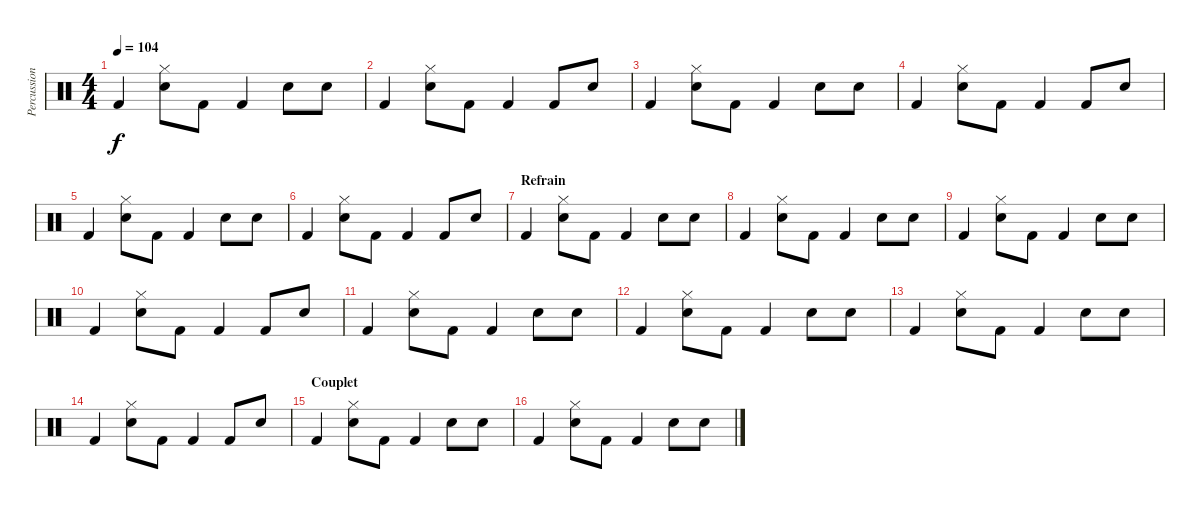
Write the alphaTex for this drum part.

\track ("Percussions" "Percussion") {instrument percussion}
\staff {score}
\articulation defaults
\ts (4 4)
\tempo 104
\clef neutral
\ks c "Kick (hit) 2".4{dy f}
("Hi-Hat (closed)" "Snare (hit) 2").8 "Kick (hit) 2".8 "Kick (hit) 2".4 "Snare (hit) 2".8 "Electric Snare (hit)".8 |
"Kick (hit) 2".4 ("Hi-Hat (closed)" "Snare (hit) 2").8 "Kick (hit) 2".8 "Kick (hit) 2".4 "Kick (hit) 2".8 "Electric Snare (hit)".8 |
"Kick (hit) 2".4 ("Hi-Hat (closed)" "Snare (hit) 2").8 "Kick (hit) 2".8 "Kick (hit) 2".4 "Snare (hit) 2".8 "Electric Snare (hit)".8 |
"Kick (hit) 2".4 ("Hi-Hat (closed)" "Snare (hit) 2").8 "Kick (hit) 2".8 "Kick (hit) 2".4 "Kick (hit) 2".8 "Electric Snare (hit)".8 |
"Kick (hit) 2".4 ("Hi-Hat (closed)" "Snare (hit) 2").8 "Kick (hit) 2".8 "Kick (hit) 2".4 "Snare (hit) 2".8 "Electric Snare (hit)".8 |
"Kick (hit) 2".4 ("Hi-Hat (closed)" "Snare (hit) 2").8 "Kick (hit) 2".8 "Kick (hit) 2".4 "Kick (hit) 2".8 "Electric Snare (hit)".8 |
\section ("" "Refrain")
"Kick (hit) 2".4 ("Hi-Hat (closed)" "Snare (hit) 2").8 "Kick (hit) 2".8 "Kick (hit) 2".4 "Snare (hit) 2".8 "Electric Snare (hit)".8 |
"Kick (hit) 2".4 ("Hi-Hat (closed)" "Snare (hit) 2").8 "Kick (hit) 2".8 "Kick (hit) 2".4 "Snare (hit) 2".8 "Electric Snare (hit)".8 |
"Kick (hit) 2".4 ("Hi-Hat (closed)" "Snare (hit) 2").8 "Kick (hit) 2".8 "Kick (hit) 2".4 "Snare (hit) 2".8 "Electric Snare (hit)".8 |
"Kick (hit) 2".4 ("Hi-Hat (closed)" "Snare (hit) 2").8 "Kick (hit) 2".8 "Kick (hit) 2".4 "Kick (hit) 2".8 "Electric Snare (hit)".8 |
"Kick (hit) 2".4 ("Hi-Hat (closed)" "Snare (hit) 2").8 "Kick (hit) 2".8 "Kick (hit) 2".4 "Snare (hit) 2".8 "Electric Snare (hit)".8 |
"Kick (hit) 2".4 ("Hi-Hat (closed)" "Snare (hit) 2").8 "Kick (hit) 2".8 "Kick (hit) 2".4 "Snare (hit) 2".8 "Electric Snare (hit)".8 |
"Kick (hit) 2".4 ("Hi-Hat (closed)" "Snare (hit) 2").8 "Kick (hit) 2".8 "Kick (hit) 2".4 "Snare (hit) 2".8 "Electric Snare (hit)".8 |
"Kick (hit) 2".4 ("Hi-Hat (closed)" "Snare (hit) 2").8 "Kick (hit) 2".8 "Kick (hit) 2".4 "Kick (hit) 2".8 "Electric Snare (hit)".8 |
\section ("" "Couplet")
"Kick (hit) 2".4 ("Hi-Hat (closed)" "Snare (hit) 2").8 "Kick (hit) 2".8 "Kick (hit) 2".4 "Snare (hit) 2".8 "Electric Snare (hit)".8 |
"Kick (hit) 2".4 ("Hi-Hat (closed)" "Snare (hit) 2").8 "Kick (hit) 2".8 "Kick (hit) 2".4 "Snare (hit) 2".8 "Electric Snare (hit)".8
